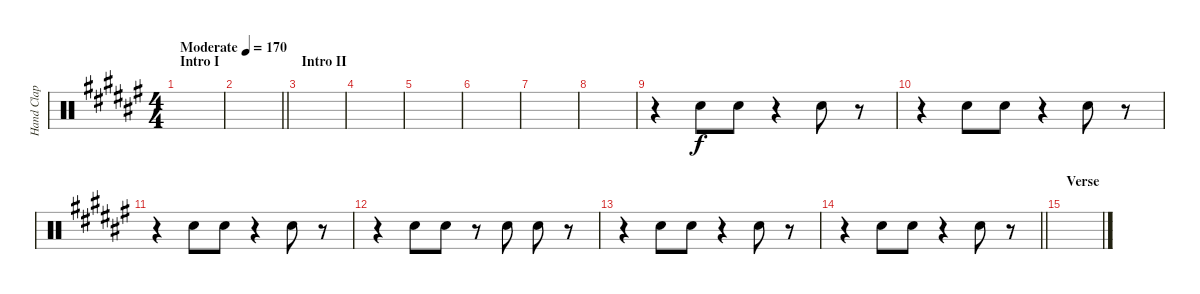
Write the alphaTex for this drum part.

\track ("Hand Clap" "Hand Clap") {instrument percussion}
\staff {score}
\articulation defaults
\ts (4 4)
\section ("" "Intro I")
\tempo (170 "Moderate")
\clef neutral
\ks f#
|
\barLineRight lightlight
|
\section ("" "Intro II")
|
|
|
|
|
|
r.4 "Hand Clap (hit)".8 "Hand Clap (hit)".8 r.4 "Hand Clap (hit)".8 r.8 |
r.4 "Hand Clap (hit)".8 "Hand Clap (hit)".8 r.4 "Hand Clap (hit)".8 r.8 |
r.4 "Hand Clap (hit)".8 "Hand Clap (hit)".8 r.4 "Hand Clap (hit)".8 r.8 |
r.4 "Hand Clap (hit)".8 "Hand Clap (hit)".8 r.8 "Hand Clap (hit)".8 "Hand Clap (hit)".8 r.8 |
r.4 "Hand Clap (hit)".8 "Hand Clap (hit)".8 r.4 "Hand Clap (hit)".8 r.8 |
\barLineRight lightlight
r.4 "Hand Clap (hit)".8 "Hand Clap (hit)".8 r.4 "Hand Clap (hit)".8 r.8 |
\section ("" "Verse")
